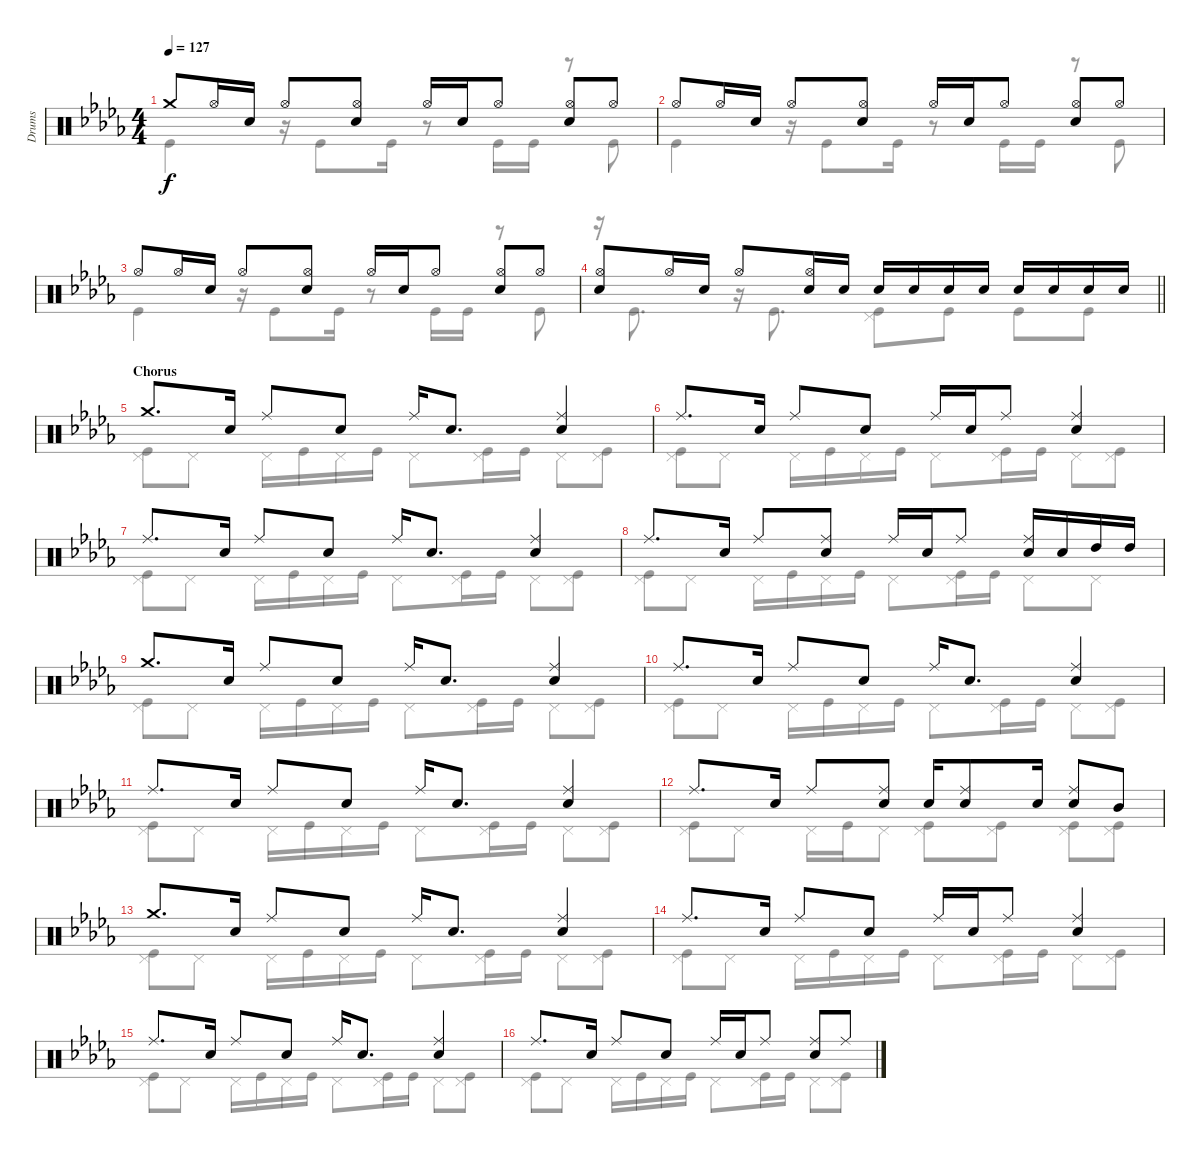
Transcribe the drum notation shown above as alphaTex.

\track ("Drums" "Drums") {instrument percussion}
\staff {score}
\articulation defaults
\voice
\ts (4 4)
\tempo 127
\clef neutral
\ks bbminor "Crash medium (hit)".8{dy f} "Hi-Hat (open)".16 "Electric Snare (hit)".16 "Hi-Hat (open)".8
("Hi-Hat (open)" "Electric Snare (hit)").8 "Hi-Hat (open)".16 "Electric Snare (hit)".16 "Hi-Hat (open)".8 ("Hi-Hat (open)" "Electric Snare (hit)").8 "Hi-Hat (open)".8 |
"Hi-Hat (open)".8 "Hi-Hat (open)".16 "Electric Snare (hit)".16 "Hi-Hat (open)".8 ("Hi-Hat (open)" "Electric Snare (hit)").8 "Hi-Hat (open)".16 "Electric Snare (hit)".16 "Hi-Hat (open)".8 ("Hi-Hat (open)" "Electric Snare (hit)").8 "Hi-Hat (open)".8 |
"Hi-Hat (open)".8 "Hi-Hat (open)".16 "Electric Snare (hit)".16 "Hi-Hat (open)".8 ("Hi-Hat (open)" "Electric Snare (hit)").8 "Hi-Hat (open)".16 "Electric Snare (hit)".16 "Hi-Hat (open)".8 ("Hi-Hat (open)" "Electric Snare (hit)").8 "Hi-Hat (open)".8 |
\barLineRight lightlight
("Hi-Hat (open)" "Electric Snare (hit)").8 "Hi-Hat (open)".16 "Electric Snare (hit)".16 "Hi-Hat (open)".8 ("Hi-Hat (open)" "Electric Snare (hit)").16 "Electric Snare (hit)".16 "Electric Snare (hit)".16 "Electric Snare (hit)".16 "Electric Snare (hit)".16 "Electric Snare (hit)".16 "Electric Snare (hit)".16 "Electric Snare (hit)".16 "Electric Snare (hit)".16 "Electric Snare (hit)".16 |
\section ("" "Chorus")
"Crash medium (hit)".8{d} "Electric Snare (hit)".16 "Ride (middle)".8 "Electric Snare (hit)".8 "Ride (middle)".16 "Electric Snare (hit)".8{d} ("Ride (middle)" "Electric Snare (hit)").4 |
"Ride (middle)".8{d} "Electric Snare (hit)".16 "Ride (middle)".8 "Electric Snare (hit)".8 "Ride (middle)".16 "Electric Snare (hit)".16 "Ride (middle)".8 ("Ride (middle)" "Electric Snare (hit)").4 |
"Ride (middle)".8{d} "Electric Snare (hit)".16 "Ride (middle)".8 "Electric Snare (hit)".8 "Ride (middle)".16 "Electric Snare (hit)".8{d} ("Ride (middle)" "Electric Snare (hit)").4 |
"Ride (middle)".8{d} "Electric Snare (hit)".16 "Ride (middle)".8 ("Ride (middle)" "Electric Snare (hit)").8 "Ride (middle)".16 "Electric Snare (hit)".16 "Ride (middle)".8 ("Ride (middle)" "Electric Snare (hit)").16 "Electric Snare (hit)".16 "High Tom (hit)".16 "High Tom (hit)".16 |
"Crash medium (hit)".8{d} "Electric Snare (hit)".16 "Ride (middle)".8 "Electric Snare (hit)".8 "Ride (middle)".16 "Electric Snare (hit)".8{d} ("Ride (middle)" "Electric Snare (hit)").4 |
"Ride (middle)".8{d} "Electric Snare (hit)".16 "Ride (middle)".8 "Electric Snare (hit)".8 "Ride (middle)".16 "Electric Snare (hit)".8{d} ("Ride (middle)" "Electric Snare (hit)").4 |
"Ride (middle)".8{d} "Electric Snare (hit)".16 "Ride (middle)".8 "Electric Snare (hit)".8 "Ride (middle)".16 "Electric Snare (hit)".8{d} ("Ride (middle)" "Electric Snare (hit)").4 |
"Ride (middle)".8{d} "Electric Snare (hit)".16 "Ride (middle)".8 ("Ride (middle)" "Electric Snare (hit)").8 "Electric Snare (hit)".16 ("Ride (middle)" "Electric Snare (hit)").8 "Electric Snare (hit)".16 ("Ride (middle)" "Electric Snare (hit)").8 "Mid Tom (hit)".8 |
"Crash medium (hit)".8{d} "Electric Snare (hit)".16 "Ride (middle)".8 "Electric Snare (hit)".8 "Ride (middle)".16 "Electric Snare (hit)".8{d} ("Ride (middle)" "Electric Snare (hit)").4 |
"Ride (middle)".8{d} "Electric Snare (hit)".16 "Ride (middle)".8 "Electric Snare (hit)".8 "Ride (middle)".16 "Electric Snare (hit)".16 "Ride (middle)".8 ("Ride (middle)" "Electric Snare (hit)").4 |
"Ride (middle)".8{d} "Electric Snare (hit)".16 "Ride (middle)".8 "Electric Snare (hit)".8 "Ride (middle)".16 "Electric Snare (hit)".8{d} ("Ride (middle)" "Electric Snare (hit)").4 |
"Ride (middle)".8{d} "Electric Snare (hit)".16 "Ride (middle)".8 "Electric Snare (hit)".8 "Ride (middle)".16 "Electric Snare (hit)".16 "Ride (middle)".8 ("Ride (middle)" "Electric Snare (hit)").8 "Ride (middle)".8
\voice
\clef neutral
\ottava regular
\simile none
\ks bbminor "Kick (hit)".4{dy f}
r.16 "Kick (hit)".8 "Kick (hit)".16 r.8 "Kick (hit)".16 "Kick (hit)".16 r.8 "Kick (hit)".8 |
"Kick (hit)".4 r.16 "Kick (hit)".8 "Kick (hit)".16 r.8 "Kick (hit)".16 "Kick (hit)".16 r.8 "Kick (hit)".8 |
"Kick (hit)".4 r.16 "Kick (hit)".8 "Kick (hit)".16 r.8 "Kick (hit)".16 "Kick (hit)".16 r.8 "Kick (hit)".8 |
\barLineRight lightlight
r.16 "Kick (hit)".8{d} r.16 "Kick (hit)".8{d} ("Pedal Hi-Hat (hit)" "Kick (hit)").8 "Kick (hit)".8 "Kick (hit)".8 "Kick (hit)".8 |
("Pedal Hi-Hat (hit)" "Kick (hit)").8 "Pedal Hi-Hat (hit)".8 "Pedal Hi-Hat (hit)".16 "Kick (hit)".16 "Pedal Hi-Hat (hit)".16 "Kick (hit)".16 "Pedal Hi-Hat (hit)".8 ("Pedal Hi-Hat (hit)" "Kick (hit)").16 "Kick (hit)".16 "Pedal Hi-Hat (hit)".8 ("Pedal Hi-Hat (hit)" "Kick (hit)").8 |
("Pedal Hi-Hat (hit)" "Kick (hit)").8 "Pedal Hi-Hat (hit)".8 "Pedal Hi-Hat (hit)".16 "Kick (hit)".16 "Pedal Hi-Hat (hit)".16 "Kick (hit)".16 "Pedal Hi-Hat (hit)".8 ("Pedal Hi-Hat (hit)" "Kick (hit)").16 "Kick (hit)".16 "Pedal Hi-Hat (hit)".8 ("Pedal Hi-Hat (hit)" "Kick (hit)").8 |
("Pedal Hi-Hat (hit)" "Kick (hit)").8 "Pedal Hi-Hat (hit)".8 "Pedal Hi-Hat (hit)".16 "Kick (hit)".16 "Pedal Hi-Hat (hit)".16 "Kick (hit)".16 "Pedal Hi-Hat (hit)".8 ("Pedal Hi-Hat (hit)" "Kick (hit)").16 "Kick (hit)".16 "Pedal Hi-Hat (hit)".8 ("Pedal Hi-Hat (hit)" "Kick (hit)").8 |
("Pedal Hi-Hat (hit)" "Kick (hit)").8 "Pedal Hi-Hat (hit)".8 "Pedal Hi-Hat (hit)".16 "Kick (hit)".16 "Pedal Hi-Hat (hit)".16 "Kick (hit)".16 "Pedal Hi-Hat (hit)".8 ("Pedal Hi-Hat (hit)" "Kick (hit)").16 "Kick (hit)".16 "Pedal Hi-Hat (hit)".8 "Pedal Hi-Hat (hit)".8 |
("Pedal Hi-Hat (hit)" "Kick (hit)").8 "Pedal Hi-Hat (hit)".8 "Pedal Hi-Hat (hit)".16 "Kick (hit)".16 "Pedal Hi-Hat (hit)".16 "Kick (hit)".16 "Pedal Hi-Hat (hit)".8 ("Pedal Hi-Hat (hit)" "Kick (hit)").16 "Kick (hit)".16 "Pedal Hi-Hat (hit)".8 ("Pedal Hi-Hat (hit)" "Kick (hit)").8 |
("Pedal Hi-Hat (hit)" "Kick (hit)").8 "Pedal Hi-Hat (hit)".8 "Pedal Hi-Hat (hit)".16 "Kick (hit)".16 "Pedal Hi-Hat (hit)".16 "Kick (hit)".16 "Pedal Hi-Hat (hit)".8 ("Pedal Hi-Hat (hit)" "Kick (hit)").16 "Kick (hit)".16 "Pedal Hi-Hat (hit)".8 ("Pedal Hi-Hat (hit)" "Kick (hit)").8 |
("Pedal Hi-Hat (hit)" "Kick (hit)").8 "Pedal Hi-Hat (hit)".8 "Pedal Hi-Hat (hit)".16 "Kick (hit)".16 "Pedal Hi-Hat (hit)".16 "Kick (hit)".16 "Pedal Hi-Hat (hit)".8 ("Pedal Hi-Hat (hit)" "Kick (hit)").16 "Kick (hit)".16 "Pedal Hi-Hat (hit)".8 ("Pedal Hi-Hat (hit)" "Kick (hit)").8 |
("Pedal Hi-Hat (hit)" "Kick (hit)").8 "Pedal Hi-Hat (hit)".8 "Pedal Hi-Hat (hit)".16 "Kick (hit)".16 "Pedal Hi-Hat (hit)".8 ("Pedal Hi-Hat (hit)" "Kick (hit)").8 ("Pedal Hi-Hat (hit)" "Kick (hit)").8 ("Pedal Hi-Hat (hit)" "Kick (hit)").8 ("Pedal Hi-Hat (hit)" "Kick (hit)").8 |
("Pedal Hi-Hat (hit)" "Kick (hit)").8 "Pedal Hi-Hat (hit)".8 "Pedal Hi-Hat (hit)".16 "Kick (hit)".16 "Pedal Hi-Hat (hit)".16 "Kick (hit)".16 "Pedal Hi-Hat (hit)".8 ("Pedal Hi-Hat (hit)" "Kick (hit)").16 "Kick (hit)".16 "Pedal Hi-Hat (hit)".8 ("Pedal Hi-Hat (hit)" "Kick (hit)").8 |
("Pedal Hi-Hat (hit)" "Kick (hit)").8 "Pedal Hi-Hat (hit)".8 "Pedal Hi-Hat (hit)".16 "Kick (hit)".16 "Pedal Hi-Hat (hit)".16 "Kick (hit)".16 "Pedal Hi-Hat (hit)".8 ("Pedal Hi-Hat (hit)" "Kick (hit)").16 "Kick (hit)".16 "Pedal Hi-Hat (hit)".8 ("Pedal Hi-Hat (hit)" "Kick (hit)").8 |
("Pedal Hi-Hat (hit)" "Kick (hit)").8 "Pedal Hi-Hat (hit)".8 "Pedal Hi-Hat (hit)".16 "Kick (hit)".16 "Pedal Hi-Hat (hit)".16 "Kick (hit)".16 "Pedal Hi-Hat (hit)".8 ("Pedal Hi-Hat (hit)" "Kick (hit)").16 "Kick (hit)".16 "Pedal Hi-Hat (hit)".8 ("Pedal Hi-Hat (hit)" "Kick (hit)").8 |
("Pedal Hi-Hat (hit)" "Kick (hit)").8 "Pedal Hi-Hat (hit)".8 "Pedal Hi-Hat (hit)".16 "Kick (hit)".16 "Pedal Hi-Hat (hit)".16 "Kick (hit)".16 "Pedal Hi-Hat (hit)".8 ("Pedal Hi-Hat (hit)" "Kick (hit)").16 "Kick (hit)".16 "Pedal Hi-Hat (hit)".8 ("Pedal Hi-Hat (hit)" "Kick (hit)").8
